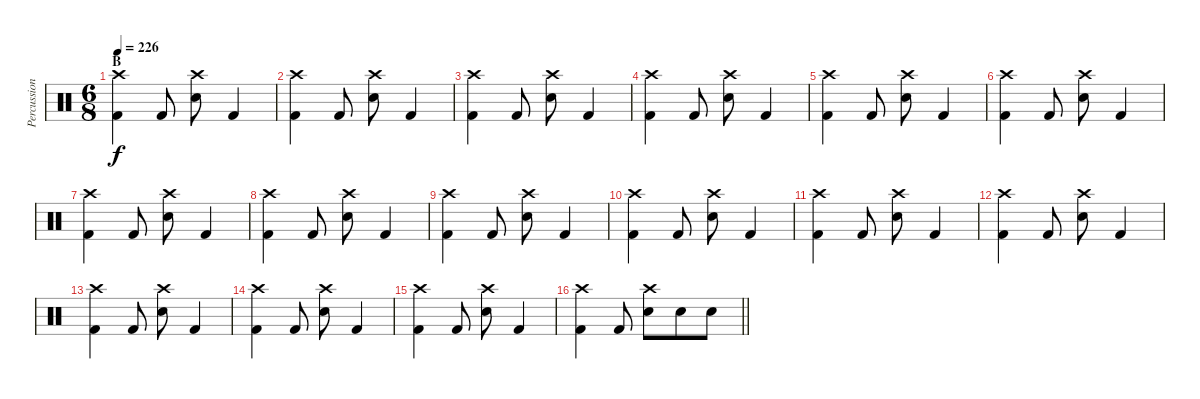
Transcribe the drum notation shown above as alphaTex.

\track ("Percussion" "Percussion") {instrument percussion}
\staff {score}
\articulation defaults
\ts (6 8)
\section ("" "B")
\tempo 226
\clef neutral
\ks c
("Crash high (hit)" "Kick (hit) 2").4{dy f} "Kick (hit) 2".8 ("Crash high (hit)" "Electric Snare (hit)").8 "Kick (hit) 2".4 |
("Crash high (hit)" "Kick (hit) 2").4 "Kick (hit) 2".8 ("Crash high (hit)" "Electric Snare (hit)").8 "Kick (hit) 2".4 |
("Crash high (hit)" "Kick (hit) 2").4 "Kick (hit) 2".8 ("Crash high (hit)" "Electric Snare (hit)").8 "Kick (hit) 2".4 |
("Crash high (hit)" "Kick (hit) 2").4 "Kick (hit) 2".8 ("Crash high (hit)" "Electric Snare (hit)").8 "Kick (hit) 2".4 |
("Crash high (hit)" "Kick (hit) 2").4 "Kick (hit) 2".8 ("Crash high (hit)" "Electric Snare (hit)").8 "Kick (hit) 2".4 |
("Crash high (hit)" "Kick (hit) 2").4 "Kick (hit) 2".8 ("Crash high (hit)" "Electric Snare (hit)").8 "Kick (hit) 2".4 |
("Crash high (hit)" "Kick (hit) 2").4 "Kick (hit) 2".8 ("Crash high (hit)" "Electric Snare (hit)").8 "Kick (hit) 2".4 |
("Crash high (hit)" "Kick (hit) 2").4 "Kick (hit) 2".8 ("Crash high (hit)" "Electric Snare (hit)").8 "Kick (hit) 2".4 |
("Crash high (hit)" "Kick (hit) 2").4 "Kick (hit) 2".8 ("Crash high (hit)" "Electric Snare (hit)").8 "Kick (hit) 2".4 |
("Crash high (hit)" "Kick (hit) 2").4 "Kick (hit) 2".8 ("Crash high (hit)" "Electric Snare (hit)").8 "Kick (hit) 2".4 |
("Crash high (hit)" "Kick (hit) 2").4 "Kick (hit) 2".8 ("Crash high (hit)" "Electric Snare (hit)").8 "Kick (hit) 2".4 |
("Crash high (hit)" "Kick (hit) 2").4 "Kick (hit) 2".8 ("Crash high (hit)" "Electric Snare (hit)").8 "Kick (hit) 2".4 |
("Crash high (hit)" "Kick (hit) 2").4 "Kick (hit) 2".8 ("Crash high (hit)" "Electric Snare (hit)").8 "Kick (hit) 2".4 |
("Crash high (hit)" "Kick (hit) 2").4 "Kick (hit) 2".8 ("Crash high (hit)" "Electric Snare (hit)").8 "Kick (hit) 2".4 |
("Crash high (hit)" "Kick (hit) 2").4 "Kick (hit) 2".8 ("Crash high (hit)" "Electric Snare (hit)").8 "Kick (hit) 2".4 |
\barLineRight lightlight
("Crash high (hit)" "Kick (hit) 2").4 "Kick (hit) 2".8 ("Crash high (hit)" "Electric Snare (hit)").8 "Electric Snare (hit)".8 "Electric Snare (hit)".8
